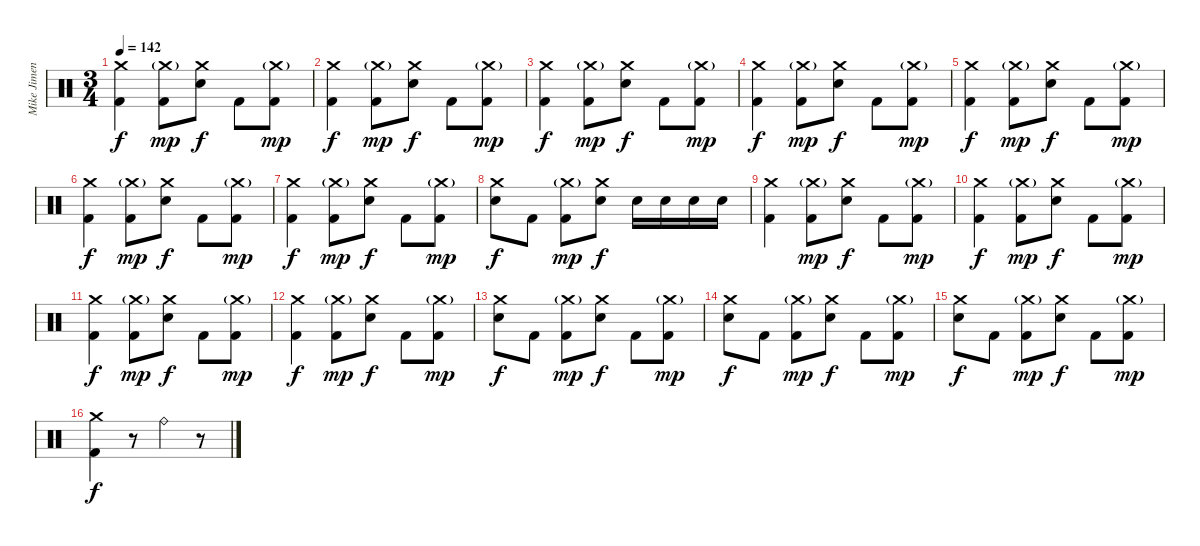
\track ("Mike Jimenez" "Mike Jimen") {instrument percussion}
\staff {score}
\articulation defaults
\ts (3 4)
\tempo 142
\clef neutral
\ks c
("Crash medium (hit)" "Kick (hit) 2").4{dy f} ("Crash medium (hit)"{g} "Kick (hit) 2").8{dy mp} ("Crash medium (hit)" "Electric Snare (hit)").8{dy f} "Kick (hit) 2".8 ("Crash medium (hit)"{g} "Kick (hit) 2").8{dy mp} |
("Crash medium (hit)" "Kick (hit) 2").4{dy f} ("Crash medium (hit)"{g} "Kick (hit) 2").8{dy mp} ("Crash medium (hit)" "Electric Snare (hit)").8{dy f} "Kick (hit) 2".8 ("Crash medium (hit)"{g} "Kick (hit) 2").8{dy mp} |
("Crash medium (hit)" "Kick (hit) 2").4{dy f} ("Crash medium (hit)"{g} "Kick (hit) 2").8{dy mp} ("Crash medium (hit)" "Electric Snare (hit)").8{dy f} "Kick (hit) 2".8 ("Crash medium (hit)"{g} "Kick (hit) 2").8{dy mp} |
("Crash medium (hit)" "Kick (hit) 2").4{dy f} ("Crash medium (hit)"{g} "Kick (hit) 2").8{dy mp} ("Crash medium (hit)" "Electric Snare (hit)").8{dy f} "Kick (hit) 2".8 ("Crash medium (hit)"{g} "Kick (hit) 2").8{dy mp} |
("Crash medium (hit)" "Kick (hit) 2").4{dy f} ("Crash medium (hit)"{g} "Kick (hit) 2").8{dy mp} ("Crash medium (hit)" "Electric Snare (hit)").8{dy f} "Kick (hit) 2".8 ("Crash medium (hit)"{g} "Kick (hit) 2").8{dy mp} |
("Crash medium (hit)" "Kick (hit) 2").4{dy f} ("Crash medium (hit)"{g} "Kick (hit) 2").8{dy mp} ("Crash medium (hit)" "Electric Snare (hit)").8{dy f} "Kick (hit) 2".8 ("Crash medium (hit)"{g} "Kick (hit) 2").8{dy mp} |
("Crash medium (hit)" "Kick (hit) 2").4{dy f} ("Crash medium (hit)"{g} "Kick (hit) 2").8{dy mp} ("Crash medium (hit)" "Electric Snare (hit)").8{dy f} "Kick (hit) 2".8 ("Crash medium (hit)"{g} "Kick (hit) 2").8{dy mp} |
("Crash medium (hit)" "Electric Snare (hit)").8{dy f} "Kick (hit) 2".8 ("Crash medium (hit)"{g} "Kick (hit) 2").8{dy mp} ("Crash medium (hit)" "Electric Snare (hit)").8{dy f} "Electric Snare (hit)".16 "Electric Snare (hit)".16 "Electric Snare (hit)".16 "Electric Snare (hit)".16 |
("Crash medium (hit)" "Kick (hit) 2").4 ("Crash medium (hit)"{g} "Kick (hit) 2").8{dy mp} ("Crash medium (hit)" "Electric Snare (hit)").8{dy f} "Kick (hit) 2".8 ("Crash medium (hit)"{g} "Kick (hit) 2").8{dy mp} |
("Crash medium (hit)" "Kick (hit) 2").4{dy f} ("Crash medium (hit)"{g} "Kick (hit) 2").8{dy mp} ("Crash medium (hit)" "Electric Snare (hit)").8{dy f} "Kick (hit) 2".8 ("Crash medium (hit)"{g} "Kick (hit) 2").8{dy mp} |
("Crash medium (hit)" "Kick (hit) 2").4{dy f} ("Crash medium (hit)"{g} "Kick (hit) 2").8{dy mp} ("Crash medium (hit)" "Electric Snare (hit)").8{dy f} "Kick (hit) 2".8 ("Crash medium (hit)"{g} "Kick (hit) 2").8{dy mp} |
("Crash medium (hit)" "Kick (hit) 2").4{dy f} ("Crash medium (hit)"{g} "Kick (hit) 2").8{dy mp} ("Crash medium (hit)" "Electric Snare (hit)").8{dy f} "Kick (hit) 2".8 ("Crash medium (hit)"{g} "Kick (hit) 2").8{dy mp} |
("Crash medium (hit)" "Electric Snare (hit)").8{dy f} "Kick (hit) 2".8 ("Crash medium (hit)"{g} "Kick (hit) 2").8{dy mp} ("Crash medium (hit)" "Electric Snare (hit)").8{dy f} "Kick (hit) 2".8 ("Crash medium (hit)"{g} "Kick (hit) 2").8{dy mp} |
("Crash medium (hit)" "Electric Snare (hit)").8{dy f} "Kick (hit) 2".8 ("Crash medium (hit)"{g} "Kick (hit) 2").8{dy mp} ("Crash medium (hit)" "Electric Snare (hit)").8{dy f} "Kick (hit) 2".8 ("Crash medium (hit)"{g} "Kick (hit) 2").8{dy mp} |
("Crash medium (hit)" "Electric Snare (hit)").8{dy f} "Kick (hit) 2".8 ("Crash medium (hit)"{g} "Kick (hit) 2").8{dy mp} ("Crash medium (hit)" "Electric Snare (hit)").8{dy f} "Kick (hit) 2".8 ("Crash medium (hit)"{g} "Kick (hit) 2").8{dy mp} |
("Crash medium (hit)" "Kick (hit) 2").4{dy f} r.8 "Ride (bell)".4 r.8
